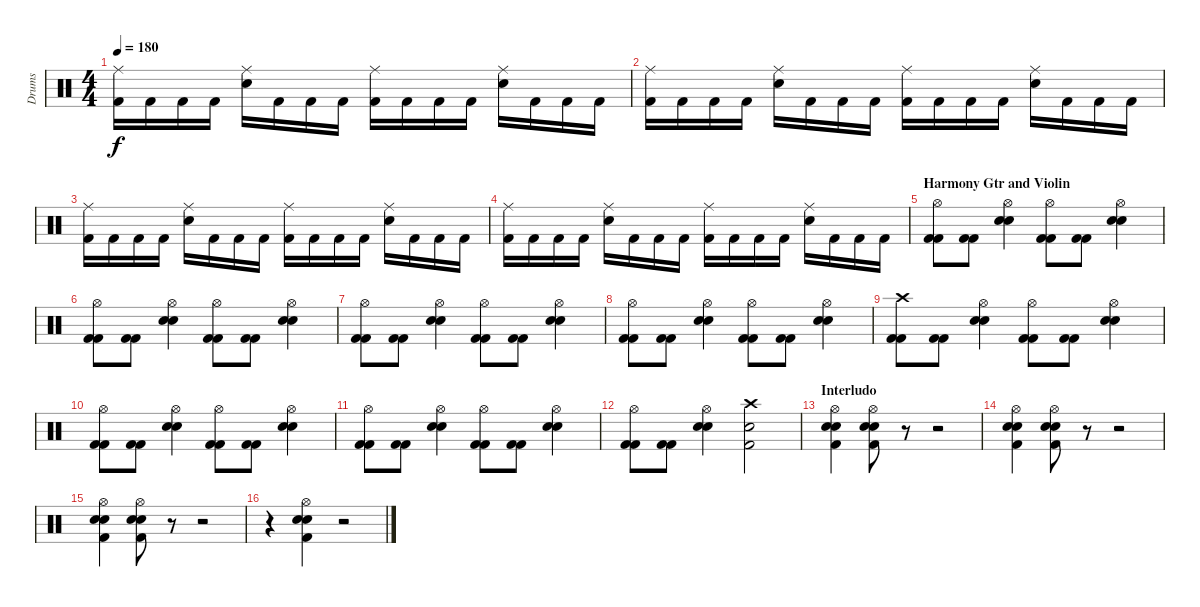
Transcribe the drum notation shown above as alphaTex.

\track ("Drums" "Drums") {instrument percussion}
\staff {score}
\articulation defaults
\ts (4 4)
\tempo 180
\clef neutral
\ks c
("Ride (middle)" "Kick (hit) 2").16{dy f} "Kick (hit) 2".16 "Kick (hit) 2".16 "Kick (hit) 2".16 ("Ride (middle)" "Snare (hit) 2").16 "Kick (hit) 2".16 "Kick (hit) 2".16 "Kick (hit) 2".16 ("Ride (middle)" "Kick (hit) 2").16 "Kick (hit) 2".16 "Kick (hit) 2".16 "Kick (hit) 2".16 ("Ride (middle)" "Snare (hit) 2").16 "Kick (hit) 2".16 "Kick (hit) 2".16 "Kick (hit) 2".16 |
("Ride (middle)" "Kick (hit) 2").16 "Kick (hit) 2".16 "Kick (hit) 2".16 "Kick (hit) 2".16 ("Ride (middle)" "Snare (hit) 2").16 "Kick (hit) 2".16 "Kick (hit) 2".16 "Kick (hit) 2".16 ("Ride (middle)" "Kick (hit) 2").16 "Kick (hit) 2".16 "Kick (hit) 2".16 "Kick (hit) 2".16 ("Ride (middle)" "Snare (hit) 2").16 "Kick (hit) 2".16 "Kick (hit) 2".16 "Kick (hit) 2".16 |
("Ride (middle)" "Kick (hit) 2").16 "Kick (hit) 2".16 "Kick (hit) 2".16 "Kick (hit) 2".16 ("Ride (middle)" "Snare (hit) 2").16 "Kick (hit) 2".16 "Kick (hit) 2".16 "Kick (hit) 2".16 ("Ride (middle)" "Kick (hit) 2").16 "Kick (hit) 2".16 "Kick (hit) 2".16 "Kick (hit) 2".16 ("Ride (middle)" "Snare (hit) 2").16 "Kick (hit) 2".16 "Kick (hit) 2".16 "Kick (hit) 2".16 |
("Ride (middle)" "Kick (hit) 2").16 "Kick (hit) 2".16 "Kick (hit) 2".16 "Kick (hit) 2".16 ("Ride (middle)" "Snare (hit) 2").16 "Kick (hit) 2".16 "Kick (hit) 2".16 "Kick (hit) 2".16 ("Ride (middle)" "Kick (hit) 2").16 "Kick (hit) 2".16 "Kick (hit) 2".16 "Kick (hit) 2".16 ("Ride (middle)" "Snare (hit) 2").16 "Kick (hit) 2".16 "Kick (hit) 2".16 "Kick (hit) 2".16 |
\section ("" "Harmony Gtr and Violin")
("Hi-Hat (open)" "Kick (hit) 2" "Kick (hit) 2").8 ("Kick (hit) 2" "Kick (hit) 2").8 ("Hi-Hat (open)" "Snare (hit) 2" "Snare (hit) 2").4 ("Hi-Hat (open)" "Kick (hit) 2" "Kick (hit) 2").8 ("Kick (hit) 2" "Kick (hit) 2").8 ("Hi-Hat (open)" "Snare (hit) 2" "Snare (hit) 2").4 |
("Hi-Hat (open)" "Kick (hit) 2" "Kick (hit) 2").8 ("Kick (hit) 2" "Kick (hit) 2").8 ("Hi-Hat (open)" "Snare (hit) 2" "Snare (hit) 2").4 ("Hi-Hat (open)" "Kick (hit) 2" "Kick (hit) 2").8 ("Kick (hit) 2" "Kick (hit) 2").8 ("Hi-Hat (open)" "Snare (hit) 2" "Snare (hit) 2").4 |
("Hi-Hat (open)" "Kick (hit) 2" "Kick (hit) 2").8 ("Kick (hit) 2" "Kick (hit) 2").8 ("Hi-Hat (open)" "Snare (hit) 2" "Snare (hit) 2").4 ("Hi-Hat (open)" "Kick (hit) 2" "Kick (hit) 2").8 ("Kick (hit) 2" "Kick (hit) 2").8 ("Hi-Hat (open)" "Snare (hit) 2" "Snare (hit) 2").4 |
("Hi-Hat (open)" "Kick (hit) 2" "Kick (hit) 2").8 ("Kick (hit) 2" "Kick (hit) 2").8 ("Hi-Hat (open)" "Snare (hit) 2" "Snare (hit) 2").4 ("Hi-Hat (open)" "Kick (hit) 2" "Kick (hit) 2").8 ("Kick (hit) 2" "Kick (hit) 2").8 ("Hi-Hat (open)" "Snare (hit) 2" "Snare (hit) 2").4 |
("Crash high (hit)" "Kick (hit) 2" "Kick (hit) 2").8 ("Kick (hit) 2" "Kick (hit) 2").8 ("Hi-Hat (open)" "Snare (hit) 2" "Snare (hit) 2").4 ("Hi-Hat (open)" "Kick (hit) 2" "Kick (hit) 2").8 ("Kick (hit) 2" "Kick (hit) 2").8 ("Hi-Hat (open)" "Snare (hit) 2" "Snare (hit) 2").4 |
("Hi-Hat (open)" "Kick (hit) 2" "Kick (hit) 2").8 ("Kick (hit) 2" "Kick (hit) 2").8 ("Hi-Hat (open)" "Snare (hit) 2" "Snare (hit) 2").4 ("Hi-Hat (open)" "Kick (hit) 2" "Kick (hit) 2").8 ("Kick (hit) 2" "Kick (hit) 2").8 ("Hi-Hat (open)" "Snare (hit) 2" "Snare (hit) 2").4 |
("Hi-Hat (open)" "Kick (hit) 2" "Kick (hit) 2").8 ("Kick (hit) 2" "Kick (hit) 2").8 ("Hi-Hat (open)" "Snare (hit) 2" "Snare (hit) 2").4 ("Hi-Hat (open)" "Kick (hit) 2" "Kick (hit) 2").8 ("Kick (hit) 2" "Kick (hit) 2").8 ("Hi-Hat (open)" "Snare (hit) 2" "Snare (hit) 2").4 |
("Hi-Hat (open)" "Kick (hit) 2" "Kick (hit) 2").8 ("Kick (hit) 2" "Kick (hit) 2").8 ("Hi-Hat (open)" "Snare (hit) 2" "Snare (hit) 2").4 ("Crash high (hit)" "Snare (hit) 2" "Kick (hit) 2").2 |
\section ("" "Interludo")
("Hi-Hat (open)" "Snare (hit) 2" "Snare (hit) 2" "Kick (hit) 2").4 ("Hi-Hat (open)" "Snare (hit) 2" "Snare (hit) 2" "Kick (hit) 2").8 r.8 r.2 |
("Hi-Hat (open)" "Snare (hit) 2" "Snare (hit) 2" "Kick (hit) 2").4 ("Hi-Hat (open)" "Snare (hit) 2" "Snare (hit) 2" "Kick (hit) 2").8 r.8 r.2 |
("Hi-Hat (open)" "Snare (hit) 2" "Snare (hit) 2" "Kick (hit) 2").4 ("Hi-Hat (open)" "Snare (hit) 2" "Snare (hit) 2" "Kick (hit) 2").8 r.8 r.2 |
r.4 ("Hi-Hat (open)" "Snare (hit) 2" "Snare (hit) 2" "Kick (hit) 2").4 r.2
